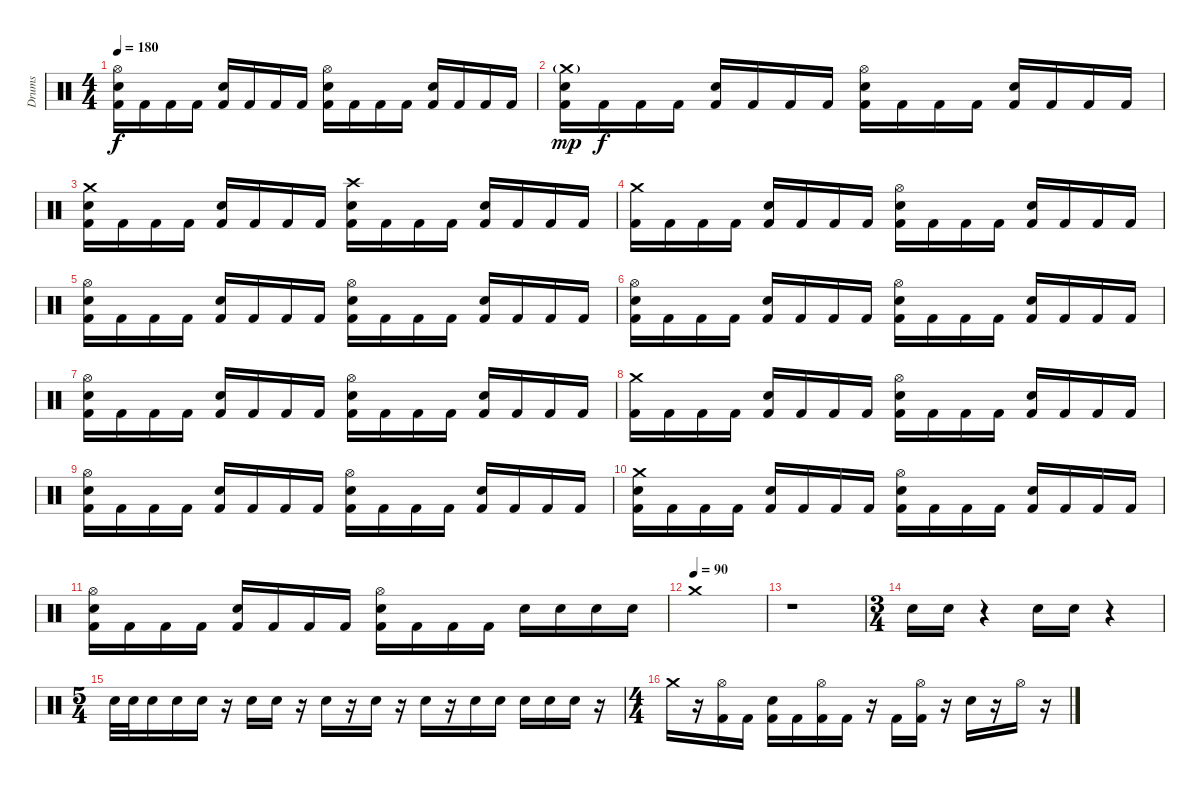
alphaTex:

\track ("Drums" "Drums") {instrument percussion}
\staff {score}
\articulation defaults
\ts (4 4)
\tempo 180
\clef neutral
\ks c
("Hi-Hat (open)" "Electric Snare (hit)" "Kick (hit) 2").16{dy f} "Kick (hit) 2".16 "Kick (hit) 2".16 "Kick (hit) 2".16 ("Electric Snare (hit)" "Kick (hit) 2").16 "Kick (hit) 2".16 "Kick (hit) 2".16 "Kick (hit) 2".16 ("Hi-Hat (open)" "Electric Snare (hit)" "Kick (hit) 2").16 "Kick (hit) 2".16 "Kick (hit) 2".16 "Kick (hit) 2".16 ("Electric Snare (hit)" "Kick (hit) 2").16 "Kick (hit) 2".16 "Kick (hit) 2".16 "Kick (hit) 2".16 |
("Crash medium (hit)"{g} "Electric Snare (hit)" "Kick (hit) 2").16{dy mp} "Kick (hit) 2".16{dy f} "Kick (hit) 2".16 "Kick (hit) 2".16 ("Electric Snare (hit)" "Kick (hit) 2").16 "Kick (hit) 2".16 "Kick (hit) 2".16 "Kick (hit) 2".16 ("Hi-Hat (open)" "Electric Snare (hit)" "Kick (hit) 2").16 "Kick (hit) 2".16 "Kick (hit) 2".16 "Kick (hit) 2".16 ("Electric Snare (hit)" "Kick (hit) 2").16 "Kick (hit) 2".16 "Kick (hit) 2".16 "Kick (hit) 2".16 |
("Crash medium (hit)" "Electric Snare (hit)" "Kick (hit) 2").16 "Kick (hit) 2".16 "Kick (hit) 2".16 "Kick (hit) 2".16 ("Electric Snare (hit)" "Kick (hit) 2").16 "Kick (hit) 2".16 "Kick (hit) 2".16 "Kick (hit) 2".16 ("Crash high (hit)" "Electric Snare (hit)" "Kick (hit) 2").16 "Kick (hit) 2".16 "Kick (hit) 2".16 "Kick (hit) 2".16 ("Electric Snare (hit)" "Kick (hit) 2").16 "Kick (hit) 2".16 "Kick (hit) 2".16 "Kick (hit) 2".16 |
("Crash medium (hit)" "Kick (hit) 2").16 "Kick (hit) 2".16 "Kick (hit) 2".16 "Kick (hit) 2".16 ("Electric Snare (hit)" "Kick (hit) 2").16 "Kick (hit) 2".16 "Kick (hit) 2".16 "Kick (hit) 2".16 ("Hi-Hat (open)" "Electric Snare (hit)" "Kick (hit) 2").16 "Kick (hit) 2".16 "Kick (hit) 2".16 "Kick (hit) 2".16 ("Electric Snare (hit)" "Kick (hit) 2").16 "Kick (hit) 2".16 "Kick (hit) 2".16 "Kick (hit) 2".16 |
("Hi-Hat (open)" "Electric Snare (hit)" "Kick (hit) 2").16 "Kick (hit) 2".16 "Kick (hit) 2".16 "Kick (hit) 2".16 ("Electric Snare (hit)" "Kick (hit) 2").16 "Kick (hit) 2".16 "Kick (hit) 2".16 "Kick (hit) 2".16 ("Hi-Hat (open)" "Electric Snare (hit)" "Kick (hit) 2").16 "Kick (hit) 2".16 "Kick (hit) 2".16 "Kick (hit) 2".16 ("Electric Snare (hit)" "Kick (hit) 2").16 "Kick (hit) 2".16 "Kick (hit) 2".16 "Kick (hit) 2".16 |
("Hi-Hat (open)" "Electric Snare (hit)" "Kick (hit) 2").16 "Kick (hit) 2".16 "Kick (hit) 2".16 "Kick (hit) 2".16 ("Electric Snare (hit)" "Kick (hit) 2").16 "Kick (hit) 2".16 "Kick (hit) 2".16 "Kick (hit) 2".16 ("Hi-Hat (open)" "Electric Snare (hit)" "Kick (hit) 2").16 "Kick (hit) 2".16 "Kick (hit) 2".16 "Kick (hit) 2".16 ("Electric Snare (hit)" "Kick (hit) 2").16 "Kick (hit) 2".16 "Kick (hit) 2".16 "Kick (hit) 2".16 |
("Hi-Hat (open)" "Electric Snare (hit)" "Kick (hit) 2").16 "Kick (hit) 2".16 "Kick (hit) 2".16 "Kick (hit) 2".16 ("Electric Snare (hit)" "Kick (hit) 2").16 "Kick (hit) 2".16 "Kick (hit) 2".16 "Kick (hit) 2".16 ("Hi-Hat (open)" "Electric Snare (hit)" "Kick (hit) 2").16 "Kick (hit) 2".16 "Kick (hit) 2".16 "Kick (hit) 2".16 ("Electric Snare (hit)" "Kick (hit) 2").16 "Kick (hit) 2".16 "Kick (hit) 2".16 "Kick (hit) 2".16 |
("Crash medium (hit)" "Kick (hit) 2").16 "Kick (hit) 2".16 "Kick (hit) 2".16 "Kick (hit) 2".16 ("Electric Snare (hit)" "Kick (hit) 2").16 "Kick (hit) 2".16 "Kick (hit) 2".16 "Kick (hit) 2".16 ("Hi-Hat (open)" "Electric Snare (hit)" "Kick (hit) 2").16 "Kick (hit) 2".16 "Kick (hit) 2".16 "Kick (hit) 2".16 ("Electric Snare (hit)" "Kick (hit) 2").16 "Kick (hit) 2".16 "Kick (hit) 2".16 "Kick (hit) 2".16 |
("Hi-Hat (open)" "Electric Snare (hit)" "Kick (hit) 2").16 "Kick (hit) 2".16 "Kick (hit) 2".16 "Kick (hit) 2".16 ("Electric Snare (hit)" "Kick (hit) 2").16 "Kick (hit) 2".16 "Kick (hit) 2".16 "Kick (hit) 2".16 ("Hi-Hat (open)" "Electric Snare (hit)" "Kick (hit) 2").16 "Kick (hit) 2".16 "Kick (hit) 2".16 "Kick (hit) 2".16 ("Electric Snare (hit)" "Kick (hit) 2").16 "Kick (hit) 2".16 "Kick (hit) 2".16 "Kick (hit) 2".16 |
("Crash medium (hit)" "Electric Snare (hit)" "Kick (hit) 2").16 "Kick (hit) 2".16 "Kick (hit) 2".16 "Kick (hit) 2".16 ("Electric Snare (hit)" "Kick (hit) 2").16 "Kick (hit) 2".16 "Kick (hit) 2".16 "Kick (hit) 2".16 ("Hi-Hat (open)" "Electric Snare (hit)" "Kick (hit) 2").16 "Kick (hit) 2".16 "Kick (hit) 2".16 "Kick (hit) 2".16 ("Electric Snare (hit)" "Kick (hit) 2").16 "Kick (hit) 2".16 "Kick (hit) 2".16 "Kick (hit) 2".16 |
("Hi-Hat (open)" "Electric Snare (hit)" "Kick (hit) 2").16 "Kick (hit) 2".16 "Kick (hit) 2".16 "Kick (hit) 2".16 ("Electric Snare (hit)" "Kick (hit) 2").16 "Kick (hit) 2".16 "Kick (hit) 2".16 "Kick (hit) 2".16 ("Hi-Hat (open)" "Electric Snare (hit)" "Kick (hit) 2").16 "Kick (hit) 2".16 "Kick (hit) 2".16 "Kick (hit) 2".16 "Electric Snare (hit)".16 "Electric Snare (hit)".16 "Electric Snare (hit)".16 "Electric Snare (hit)".16 |
\tempo (90)
"Crash medium (hit)".1 |
r.1 |
\ts (3 4)
"Electric Snare (hit)".16 "Electric Snare (hit)".16 r.4 "Electric Snare (hit)".16 "Electric Snare (hit)".16 r.4 |
\ts (5 4)
"Electric Snare (hit)".32 "Electric Snare (hit)".32 "Electric Snare (hit)".16 "Electric Snare (hit)".16 "Electric Snare (hit)".16 r.16 "Electric Snare (hit)".16 "Electric Snare (hit)".16 r.16 "Electric Snare (hit)".16 r.16 "Electric Snare (hit)".16 r.16 "Electric Snare (hit)".16 r.16 "Electric Snare (hit)".16 "Electric Snare (hit)".16 "Electric Snare (hit)".16 "Electric Snare (hit)".16 "Electric Snare (hit)".16 r.16 |
\ts (4 4)
"Crash medium (hit)".16 r.16 ("Hi-Hat (open)" "Kick (hit) 2").16 "Kick (hit) 2".16 ("Electric Snare (hit)" "Kick (hit) 2").16 "Kick (hit) 2".16 ("Hi-Hat (open)" "Kick (hit) 2").16 "Kick (hit) 2".16 r.16 "Kick (hit) 2".16 ("Hi-Hat (open)" "Kick (hit) 2").16 r.16 "Electric Snare (hit)".16 r.16 "Hi-Hat (open)".16 r.16
